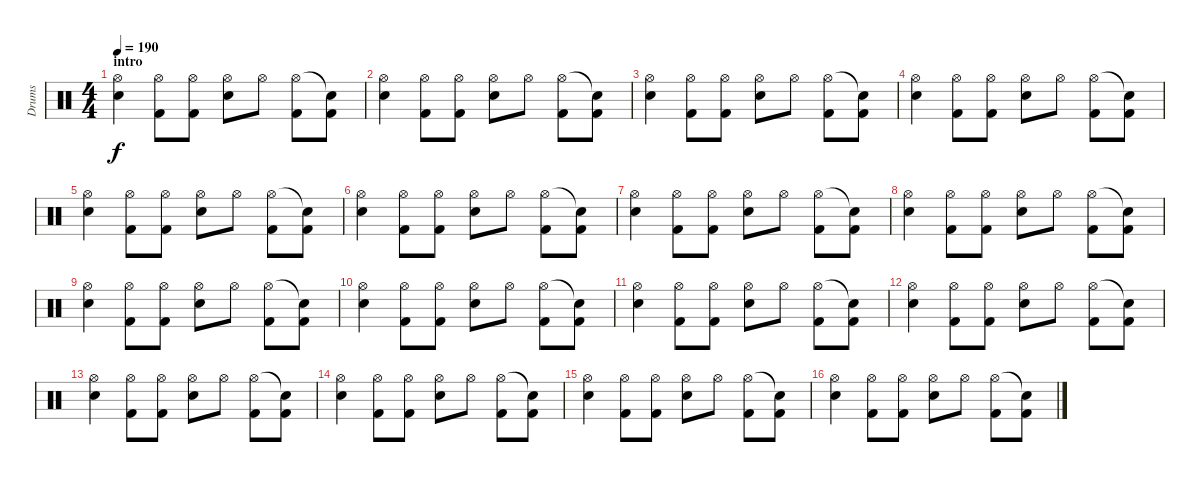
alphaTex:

\track ("Drums" "Drums") {instrument percussion}
\staff {score}
\articulation defaults
\ts (4 4)
\section ("" "intro")
\tempo 190
\clef neutral
\ks c
("Electric Snare (hit)" "Hi-Hat (open)").4{dy f} ("Hi-Hat (open)" "Kick (hit) 2").8 ("Hi-Hat (open)" "Kick (hit) 2").8 ("Hi-Hat (open)" "Electric Snare (hit)").8 "Hi-Hat (open)".8 ("Kick (hit) 2" "Hi-Hat (open)").8 ("Kick (hit) 2" "Snare (hit)"{t}).8 |
("Electric Snare (hit)" "Hi-Hat (open)").4 ("Hi-Hat (open)" "Kick (hit) 2").8 ("Hi-Hat (open)" "Kick (hit) 2").8 ("Hi-Hat (open)" "Electric Snare (hit)").8 "Hi-Hat (open)".8 ("Kick (hit) 2" "Hi-Hat (open)").8 ("Kick (hit) 2" "Snare (hit)"{t}).8 |
("Electric Snare (hit)" "Hi-Hat (open)").4 ("Hi-Hat (open)" "Kick (hit) 2").8 ("Hi-Hat (open)" "Kick (hit) 2").8 ("Hi-Hat (open)" "Electric Snare (hit)").8 "Hi-Hat (open)".8 ("Kick (hit) 2" "Hi-Hat (open)").8 ("Kick (hit) 2" "Snare (hit)"{t}).8 |
("Electric Snare (hit)" "Hi-Hat (open)").4 ("Hi-Hat (open)" "Kick (hit) 2").8 ("Hi-Hat (open)" "Kick (hit) 2").8 ("Hi-Hat (open)" "Electric Snare (hit)").8 "Hi-Hat (open)".8 ("Kick (hit) 2" "Hi-Hat (open)").8 ("Kick (hit) 2" "Snare (hit)"{t}).8 |
("Electric Snare (hit)" "Hi-Hat (open)").4 ("Hi-Hat (open)" "Kick (hit) 2").8 ("Hi-Hat (open)" "Kick (hit) 2").8 ("Hi-Hat (open)" "Electric Snare (hit)").8 "Hi-Hat (open)".8 ("Kick (hit) 2" "Hi-Hat (open)").8 ("Kick (hit) 2" "Snare (hit)"{t}).8 |
("Electric Snare (hit)" "Hi-Hat (open)").4 ("Hi-Hat (open)" "Kick (hit) 2").8 ("Hi-Hat (open)" "Kick (hit) 2").8 ("Hi-Hat (open)" "Electric Snare (hit)").8 "Hi-Hat (open)".8 ("Kick (hit) 2" "Hi-Hat (open)").8 ("Kick (hit) 2" "Snare (hit)"{t}).8 |
("Electric Snare (hit)" "Hi-Hat (open)").4 ("Hi-Hat (open)" "Kick (hit) 2").8 ("Hi-Hat (open)" "Kick (hit) 2").8 ("Hi-Hat (open)" "Electric Snare (hit)").8 "Hi-Hat (open)".8 ("Kick (hit) 2" "Hi-Hat (open)").8 ("Kick (hit) 2" "Snare (hit)"{t}).8 |
("Electric Snare (hit)" "Hi-Hat (open)").4 ("Hi-Hat (open)" "Kick (hit) 2").8 ("Hi-Hat (open)" "Kick (hit) 2").8 ("Hi-Hat (open)" "Electric Snare (hit)").8 "Hi-Hat (open)".8 ("Kick (hit) 2" "Hi-Hat (open)").8 ("Kick (hit) 2" "Snare (hit)"{t}).8 |
("Electric Snare (hit)" "Hi-Hat (open)").4 ("Hi-Hat (open)" "Kick (hit) 2").8 ("Hi-Hat (open)" "Kick (hit) 2").8 ("Hi-Hat (open)" "Electric Snare (hit)").8 "Hi-Hat (open)".8 ("Kick (hit) 2" "Hi-Hat (open)").8 ("Kick (hit) 2" "Snare (hit)"{t}).8 |
("Electric Snare (hit)" "Hi-Hat (open)").4 ("Hi-Hat (open)" "Kick (hit) 2").8 ("Hi-Hat (open)" "Kick (hit) 2").8 ("Hi-Hat (open)" "Electric Snare (hit)").8 "Hi-Hat (open)".8 ("Kick (hit) 2" "Hi-Hat (open)").8 ("Kick (hit) 2" "Snare (hit)"{t}).8 |
("Electric Snare (hit)" "Hi-Hat (open)").4 ("Hi-Hat (open)" "Kick (hit) 2").8 ("Hi-Hat (open)" "Kick (hit) 2").8 ("Hi-Hat (open)" "Electric Snare (hit)").8 "Hi-Hat (open)".8 ("Kick (hit) 2" "Hi-Hat (open)").8 ("Kick (hit) 2" "Snare (hit)"{t}).8 |
("Electric Snare (hit)" "Hi-Hat (open)").4 ("Hi-Hat (open)" "Kick (hit) 2").8 ("Hi-Hat (open)" "Kick (hit) 2").8 ("Hi-Hat (open)" "Electric Snare (hit)").8 "Hi-Hat (open)".8 ("Kick (hit) 2" "Hi-Hat (open)").8 ("Kick (hit) 2" "Snare (hit)"{t}).8 |
("Electric Snare (hit)" "Hi-Hat (open)").4 ("Hi-Hat (open)" "Kick (hit) 2").8 ("Hi-Hat (open)" "Kick (hit) 2").8 ("Hi-Hat (open)" "Electric Snare (hit)").8 "Hi-Hat (open)".8 ("Kick (hit) 2" "Hi-Hat (open)").8 ("Kick (hit) 2" "Snare (hit)"{t}).8 |
("Electric Snare (hit)" "Hi-Hat (open)").4 ("Hi-Hat (open)" "Kick (hit) 2").8 ("Hi-Hat (open)" "Kick (hit) 2").8 ("Hi-Hat (open)" "Electric Snare (hit)").8 "Hi-Hat (open)".8 ("Kick (hit) 2" "Hi-Hat (open)").8 ("Kick (hit) 2" "Snare (hit)"{t}).8 |
("Electric Snare (hit)" "Hi-Hat (open)").4 ("Hi-Hat (open)" "Kick (hit) 2").8 ("Hi-Hat (open)" "Kick (hit) 2").8 ("Hi-Hat (open)" "Electric Snare (hit)").8 "Hi-Hat (open)".8 ("Kick (hit) 2" "Hi-Hat (open)").8 ("Kick (hit) 2" "Snare (hit)"{t}).8 |
("Electric Snare (hit)" "Hi-Hat (open)").4 ("Hi-Hat (open)" "Kick (hit) 2").8 ("Hi-Hat (open)" "Kick (hit) 2").8 ("Hi-Hat (open)" "Electric Snare (hit)").8 "Hi-Hat (open)".8 ("Kick (hit) 2" "Hi-Hat (open)").8 ("Kick (hit) 2" "Snare (hit)"{t}).8
